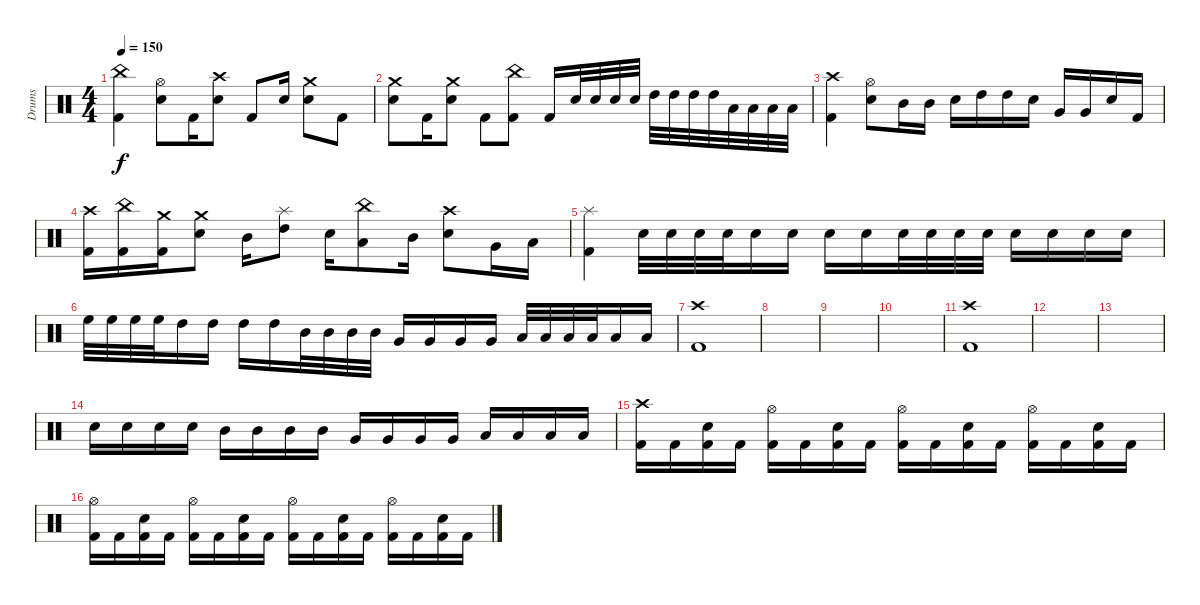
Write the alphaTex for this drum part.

\track ("Drums" "Drums") {instrument percussion}
\staff {score}
\articulation defaults
\ts (4 4)
\tempo 150
\clef neutral
\ks c
("China (hit)" "Kick (hit) 2").4{dy f} ("Hi-Hat (open)" "Electric Snare (hit)").8 "Kick (hit) 2".16 ("Crash high (hit)" "Electric Snare (hit)").8 "Kick (hit) 2".8 "Electric Snare (hit)".16 ("Crash medium (hit)" "Electric Snare (hit)").8 "Kick (hit) 2".8 |
("Crash medium (hit)" "Electric Snare (hit)").8 "Kick (hit) 2".16 ("Crash medium (hit)" "Electric Snare (hit)").8 "Kick (hit) 2".8 ("China (hit)" "Kick (hit) 2").8 "Kick (hit) 2".16 "Electric Snare (hit)".32 "Electric Snare (hit)".32 "Electric Snare (hit)".32 "Electric Snare (hit)".32 "High Tom (hit)".32 "High Tom (hit)".32 "High Tom (hit)".32 "High Tom (hit)".32 "Low Tom (hit)".32 "Low Tom (hit)".32 "Low Tom (hit)".32 "Low Tom (hit)".32 |
("Crash high (hit)" "Kick (hit) 2").4 ("Hi-Hat (open)" "Electric Snare (hit)").8 "Mid Tom (hit)".16 "Mid Tom (hit)".16 "Electric Snare (hit)".16 "High Tom (hit)".16 "High Tom (hit)".16 "Electric Snare (hit)".16 "Very Low Tom (hit)".16 "Very Low Tom (hit)".16 "Electric Snare (hit)".16 "Kick (hit) 2".16 |
("Crash high (hit)" "Kick (hit) 2").16 ("China (hit)" "Kick (hit) 2").16 ("Crash medium (hit)" "Kick (hit) 2").16 ("Crash medium (hit)" "Electric Snare (hit)").8 "Mid Tom (hit)".16 ("Splash (hit)" "High Tom (hit)").8 "Electric Snare (hit)".16 ("China (hit)" "Low Tom (hit)").8 "Mid Tom (hit)".16 ("Crash high (hit)" "Electric Snare (hit)").8 "Very Low Tom (hit)".16 "Low Tom (hit)".16 |
("Splash (hit)" "Kick (hit) 2").4 "Electric Snare (hit)".32 "Electric Snare (hit)".32 "Electric Snare (hit)".32 "Electric Snare (hit)".32 "Electric Snare (hit)".16 "Electric Snare (hit)".16 "Electric Snare (hit)".16 "Electric Snare (hit)".16 "Electric Snare (hit)".32 "Electric Snare (hit)".32 "Electric Snare (hit)".32 "Electric Snare (hit)".32 "Electric Snare (hit)".16 "Electric Snare (hit)".16 "Electric Snare (hit)".16 "Electric Snare (hit)".16 |
"High Floor Tom (hit)".32 "High Floor Tom (hit)".32 "High Floor Tom (hit)".32 "High Floor Tom (hit)".32 "High Tom (hit)".16 "High Tom (hit)".16 "High Tom (hit)".16 "High Tom (hit)".16 "Mid Tom (hit)".32 "Mid Tom (hit)".32 "Mid Tom (hit)".32 "Mid Tom (hit)".32 "Very Low Tom (hit)".16 "Very Low Tom (hit)".16 "Very Low Tom (hit)".16 "Very Low Tom (hit)".16 "Low Floor Tom (hit)".32 "Low Floor Tom (hit)".32 "Low Floor Tom (hit)".32 "Low Floor Tom (hit)".32 "Low Floor Tom (hit)".16 "Low Floor Tom (hit)".16 |
("Crash high (hit)" "Kick (hit) 2").1 |
|
|
|
("Crash high (hit)" "Kick (hit) 2").1 |
|
|
"Electric Snare (hit)".16 "Electric Snare (hit)".16 "Electric Snare (hit)".16 "Electric Snare (hit)".16 "Mid Tom (hit)".16 "Mid Tom (hit)".16 "Mid Tom (hit)".16 "Mid Tom (hit)".16 "Very Low Tom (hit)".16 "Very Low Tom (hit)".16 "Very Low Tom (hit)".16 "Very Low Tom (hit)".16 "Low Floor Tom (hit)".16 "Low Floor Tom (hit)".16 "Low Floor Tom (hit)".16 "Low Floor Tom (hit)".16 |
("Crash high (hit)" "Kick (hit) 2").16 "Kick (hit) 2".16 ("Electric Snare (hit)" "Kick (hit) 2").16 "Kick (hit) 2".16 ("Hi-Hat (open)" "Kick (hit) 2").16 "Kick (hit) 2".16 ("Electric Snare (hit)" "Kick (hit) 2").16 "Kick (hit) 2".16 ("Hi-Hat (open)" "Kick (hit) 2").16 "Kick (hit) 2".16 ("Electric Snare (hit)" "Kick (hit) 2").16 "Kick (hit) 2".16 ("Hi-Hat (open)" "Kick (hit) 2").16 "Kick (hit) 2".16 ("Electric Snare (hit)" "Kick (hit) 2").16 "Kick (hit) 2".16 |
("Hi-Hat (open)" "Kick (hit) 2").16 "Kick (hit) 2".16 ("Electric Snare (hit)" "Kick (hit) 2").16 "Kick (hit) 2".16 ("Hi-Hat (open)" "Kick (hit) 2").16 "Kick (hit) 2".16 ("Electric Snare (hit)" "Kick (hit) 2").16 "Kick (hit) 2".16 ("Hi-Hat (open)" "Kick (hit) 2").16 "Kick (hit) 2".16 ("Electric Snare (hit)" "Kick (hit) 2").16 "Kick (hit) 2".16 ("Hi-Hat (open)" "Kick (hit) 2").16 "Kick (hit) 2".16 ("Electric Snare (hit)" "Kick (hit) 2").16 "Kick (hit) 2".16
